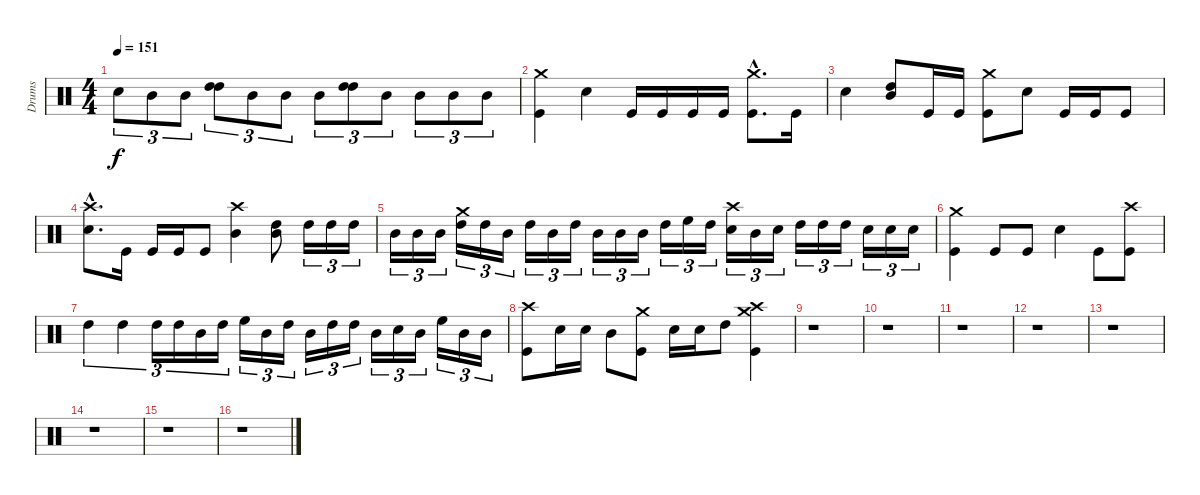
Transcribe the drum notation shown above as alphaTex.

\track ("Drums" "Drums") {instrument percussion}
\staff {score}
\articulation defaults
\ts (4 4)
\tempo 151
\clef neutral
\ks c "Snare (hit) 2".8{tu (3 2) dy f} "Mid Tom (hit)".8{tu (3 2)} "Mid Tom (hit)".8{tu (3 2)}
("High Tom (hit)" "High Tom (hit)").8{tu (3 2)} "Mid Tom (hit)".8{tu (3 2)} "Mid Tom (hit)".8{tu (3 2)} "Mid Tom (hit)".8{tu (3 2)} ("High Tom (hit)" "High Tom (hit)").8{tu (3 2)} "Mid Tom (hit)".8{tu (3 2)} "Mid Tom (hit)".8{tu (3 2)} "Mid Tom (hit)".8{tu (3 2)} "Mid Tom (hit)".8{tu (3 2)} |
("Crash medium (hit)" "Kick (hit)").4 "Snare (hit) 2".4 "Kick (hit)".16 "Kick (hit)".16 "Kick (hit)".16 "Kick (hit)".16 ("Crash medium (hit)"{hac} "Kick (hit)"{hac}).8{d} "Kick (hit)".16 |
"Snare (hit) 2".4 ("High Tom (hit)" "Mid Tom (hit)").8 "Kick (hit)".16 "Kick (hit)".16 ("Crash medium (hit)" "Kick (hit)").8 "Snare (hit) 2".8 "Kick (hit)".16 "Kick (hit)".16 "Kick (hit)".8 |
("Crash high (hit)"{hac} "Snare (hit) 2"{hac}).8{d} "Kick (hit)".16 "Kick (hit)".16 "Kick (hit)".16 "Kick (hit)".8 ("Crash high (hit)" "Mid Tom (hit)").4 ("Mid Tom (hit)" "High Tom (hit)").8 "High Tom (hit)".16{tu (3 2)} "High Tom (hit)".16{tu (3 2)} "High Tom (hit)".16{tu (3 2)} |
"Mid Tom (hit)".16{tu (3 2)} "Mid Tom (hit)".16{tu (3 2)} "Mid Tom (hit)".16{tu (3 2)} ("Crash medium (hit)" "High Tom (hit)").16{tu (3 2)} "High Tom (hit)".16{tu (3 2)} "Mid Tom (hit)".16{tu (3 2)} "High Tom (hit)".16{tu (3 2)} "Mid Tom (hit)".16{tu (3 2)} "High Tom (hit)".16{tu (3 2)} "Mid Tom (hit)".16{tu (3 2)} "Mid Tom (hit)".16{tu (3 2)} "Mid Tom (hit)".16{tu (3 2)} "High Tom (hit)".16{tu (3 2)} "High Floor Tom (hit)".16{tu (3 2)} "High Tom (hit)".16{tu (3 2)} ("Crash high (hit)" "Snare (hit) 2").16{tu (3 2)} "Mid Tom (hit)".16{tu (3 2)} "Snare (hit) 2".16{tu (3 2)} "High Tom (hit)".16{tu (3 2)} "High Tom (hit)".16{tu (3 2)} "High Tom (hit)".16{tu (3 2)} "Snare (hit) 2".16{tu (3 2)} "Snare (hit) 2".16{tu (3 2)} "Snare (hit) 2".16{tu (3 2)} |
("Crash medium (hit)" "Kick (hit)").4 "Kick (hit)".8 "Kick (hit)".8 "Snare (hit) 2".4 "Kick (hit)".8 ("Crash high (hit)" "Kick (hit)").8 |
"High Tom (hit)".4{tu (3 2)} "High Tom (hit)".4{tu (3 2)} "High Tom (hit)".16{tu (3 2)} "High Tom (hit)".16{tu (3 2)} "Mid Tom (hit)".16{tu (3 2)} "High Tom (hit)".16{tu (3 2)} "High Floor Tom (hit)".16{tu (3 2)} "Mid Tom (hit)".16{tu (3 2)} "High Tom (hit)".16{tu (3 2)} "Mid Tom (hit)".16{tu (3 2)} "High Tom (hit)".16{tu (3 2)} "High Tom (hit)".16{tu (3 2)} "Mid Tom (hit)".16{tu (3 2)} "Snare (hit) 2".16{tu (3 2)} "Mid Tom (hit)".16{tu (3 2)} "High Floor Tom (hit)".16{tu (3 2)} "Mid Tom (hit)".16{tu (3 2)} "Mid Tom (hit)".16{tu (3 2)} |
("Crash high (hit)" "Kick (hit)").8 "Snare (hit) 2".16 "Snare (hit) 2".16 "Mid Tom (hit)".8 ("Crash medium (hit)" "Kick (hit)").8 "Snare (hit) 2".16 "Snare (hit) 2".16 "High Tom (hit)".8 ("Crash medium (hit)" "Crash high (hit)" "Kick (hit)").4 |
r.1 |
r.1 |
r.1 |
r.1 |
r.1 |
r.1 |
r.1 |
r.1
